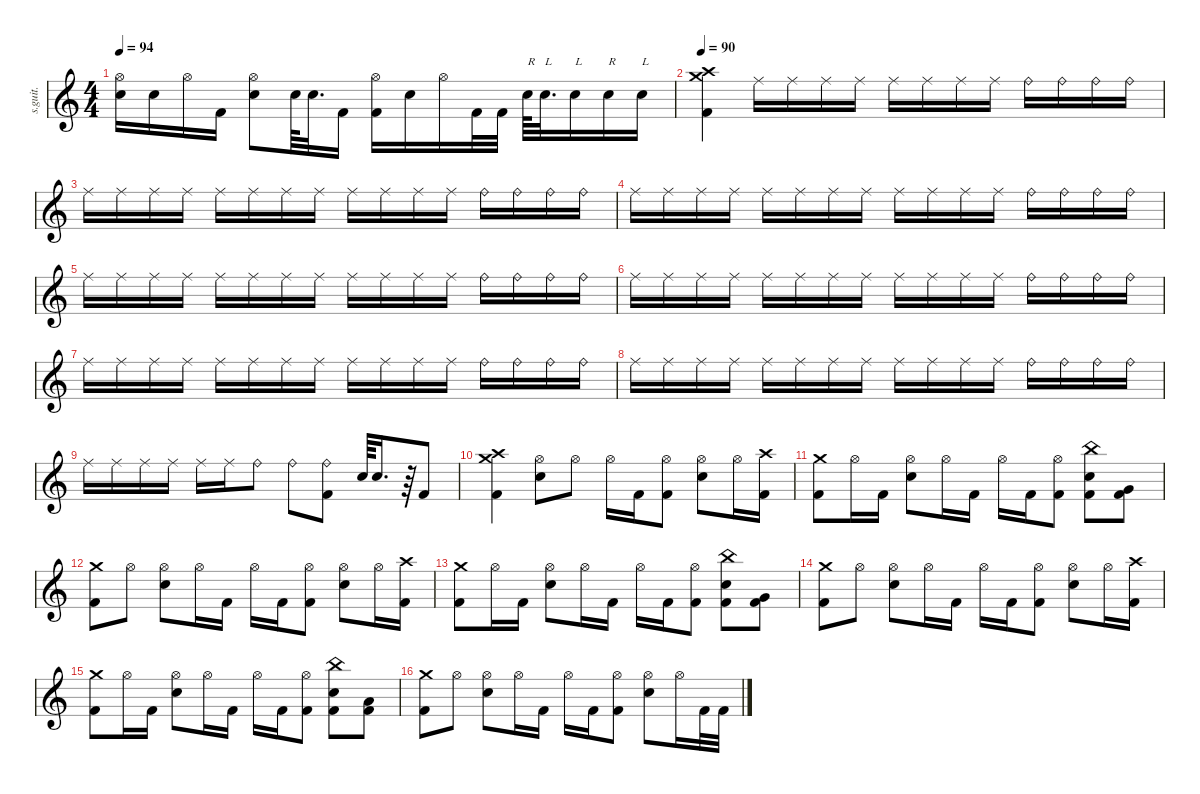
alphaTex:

\defaultSystemsLayout 4
\hideDynamics
\bracketExtendMode nobrackets
\track ("David Silveria" "s.guit.") {instrument percussion}
\staff {score}
\articulation defaults
\ts (4 4)
\tempo 94
\clef g2
\ks c
("Snare (hit) 2" "Hi-Hat (open)").16{dy f} "Snare (hit) 2".16 "Hi-Hat (open)".16 "Kick (hit) 2".16 ("Snare (hit) 2" "Hi-Hat (open)").8 "Snare (hit) 2".64 "Snare (hit) 2".32{d} "Kick (hit) 2".16 ("Kick (hit) 2" "Hi-Hat (open)").16 "Snare (hit) 2".16 "Hi-Hat (open)".16 "Kick (hit) 2".32 "Kick (hit) 2".32 "Snare (hit) 2".64{txt "R"} "Snare (hit) 2".32{d txt "L"} "Snare (hit) 2".16{txt "L"} "Snare (hit) 2".16{txt "R"} "Snare (hit) 2".16{txt "L"} |
\tempo 90
("Crash medium (hit)" "Kick (hit) 2" "Crash high (hit)").4{dy fff} "Ride (middle)".16{dy mf} "Ride (middle)".16 "Ride (middle)".16 "Ride (middle)".16 "Ride (middle)".16 "Ride (middle)".16 "Ride (middle)".16 "Ride (middle)".16 "Ride (bell)".16 "Ride (bell)".16 "Ride (bell)".16 "Ride (bell)".16 |
"Ride (middle)".16 "Ride (middle)".16 "Ride (middle)".16 "Ride (middle)".16 "Ride (middle)".16 "Ride (middle)".16 "Ride (middle)".16 "Ride (middle)".16 "Ride (middle)".16 "Ride (middle)".16 "Ride (middle)".16 "Ride (middle)".16 "Ride (bell)".16 "Ride (bell)".16 "Ride (bell)".16 "Ride (bell)".16 |
"Ride (middle)".16 "Ride (middle)".16 "Ride (middle)".16 "Ride (middle)".16 "Ride (middle)".16 "Ride (middle)".16 "Ride (middle)".16 "Ride (middle)".16 "Ride (middle)".16 "Ride (middle)".16 "Ride (middle)".16 "Ride (middle)".16 "Ride (bell)".16 "Ride (bell)".16 "Ride (bell)".16 "Ride (bell)".16 |
"Ride (middle)".16 "Ride (middle)".16 "Ride (middle)".16 "Ride (middle)".16 "Ride (middle)".16 "Ride (middle)".16 "Ride (middle)".16 "Ride (middle)".16 "Ride (middle)".16 "Ride (middle)".16 "Ride (middle)".16 "Ride (middle)".16 "Ride (bell)".16 "Ride (bell)".16 "Ride (bell)".16 "Ride (bell)".16 |
"Ride (middle)".16 "Ride (middle)".16 "Ride (middle)".16 "Ride (middle)".16 "Ride (middle)".16 "Ride (middle)".16 "Ride (middle)".16 "Ride (middle)".16 "Ride (middle)".16 "Ride (middle)".16 "Ride (middle)".16 "Ride (middle)".16 "Ride (bell)".16 "Ride (bell)".16 "Ride (bell)".16 "Ride (bell)".16 |
"Ride (middle)".16 "Ride (middle)".16 "Ride (middle)".16 "Ride (middle)".16 "Ride (middle)".16 "Ride (middle)".16 "Ride (middle)".16 "Ride (middle)".16 "Ride (middle)".16 "Ride (middle)".16 "Ride (middle)".16 "Ride (middle)".16 "Ride (bell)".16 "Ride (bell)".16 "Ride (bell)".16 "Ride (bell)".16 |
"Ride (middle)".16 "Ride (middle)".16 "Ride (middle)".16 "Ride (middle)".16 "Ride (middle)".16 "Ride (middle)".16 "Ride (middle)".16 "Ride (middle)".16 "Ride (middle)".16 "Ride (middle)".16 "Ride (middle)".16 "Ride (middle)".16 "Ride (bell)".16 "Ride (bell)".16 "Ride (bell)".16 "Ride (bell)".16 |
"Ride (middle)".16 "Ride (middle)".16 "Ride (middle)".16 "Ride (middle)".16 "Ride (middle)".16 "Ride (middle)".16 "Ride (bell)".8{dy f} "Ride (bell)".8 ("Ride (bell)" "Kick (hit) 2").8 "Snare (hit) 2".64 "Snare (hit) 2".16{d} r.64 "Kick (hit) 2".8 |
("Kick (hit) 2" "Crash high (hit)" "Crash medium (hit)").4{dy fff} ("Snare (hit) 2" "Hi-Hat (open)").8{dy f} "Hi-Hat (open)".8 "Hi-Hat (open)".16 "Kick (hit) 2".16 ("Kick (hit) 2" "Hi-Hat (open)").8 ("Snare (hit) 2" "Hi-Hat (open)").8 "Hi-Hat (open)".16 ("Crash high (hit)" "Kick (hit) 2").16 |
("Crash medium (hit)" "Kick (hit) 2").8 "Hi-Hat (open)".16 "Kick (hit) 2".16 ("Snare (hit) 2" "Hi-Hat (open)").8 "Hi-Hat (open)".16 "Kick (hit) 2".16 "Hi-Hat (open)".16 "Kick (hit) 2".16 ("Kick (hit) 2" "Hi-Hat (open)").8 ("Kick (hit) 2" "Snare (hit) 2" "China (hit)").8 ("Kick (hit) 2" "Very Low Tom (hit)").8 |
("Kick (hit) 2" "Crash medium (hit)").8 "Hi-Hat (open)".8 ("Snare (hit) 2" "Hi-Hat (open)").8 "Hi-Hat (open)".16 "Kick (hit) 2".16 "Hi-Hat (open)".16 "Kick (hit) 2".16 ("Kick (hit) 2" "Hi-Hat (open)").8 ("Snare (hit) 2" "Hi-Hat (open)").8 "Hi-Hat (open)".16 ("Crash high (hit)" "Kick (hit) 2").16 |
("Crash medium (hit)" "Kick (hit) 2").8 "Hi-Hat (open)".16 "Kick (hit) 2".16 ("Snare (hit) 2" "Hi-Hat (open)").8 "Hi-Hat (open)".16 "Kick (hit) 2".16 "Hi-Hat (open)".16 "Kick (hit) 2".16 ("Kick (hit) 2" "Hi-Hat (open)").8 ("Kick (hit) 2" "Snare (hit) 2" "China (hit)").8 ("Kick (hit) 2" "Very Low Tom (hit)").8 |
("Kick (hit) 2" "Crash medium (hit)").8 "Hi-Hat (open)".8 ("Snare (hit) 2" "Hi-Hat (open)").8 "Hi-Hat (open)".16 "Kick (hit) 2".16 "Hi-Hat (open)".16 "Kick (hit) 2".16 ("Kick (hit) 2" "Hi-Hat (open)").8 ("Snare (hit) 2" "Hi-Hat (open)").8 "Hi-Hat (open)".16 ("Crash high (hit)" "Kick (hit) 2").16 |
("Crash medium (hit)" "Kick (hit) 2").8 "Hi-Hat (open)".16 "Kick (hit) 2".16 ("Snare (hit) 2" "Hi-Hat (open)").8 "Hi-Hat (open)".16 "Kick (hit) 2".16 "Hi-Hat (open)".16 "Kick (hit) 2".16 ("Kick (hit) 2" "Hi-Hat (open)").8 ("Kick (hit) 2" "Snare (hit) 2" "China (hit)").8 ("Kick (hit) 2" "Low Tom (hit)").8 |
("Kick (hit) 2" "Crash medium (hit)").8 "Hi-Hat (open)".8 ("Snare (hit) 2" "Hi-Hat (open)").8 "Hi-Hat (open)".16 "Kick (hit) 2".16 "Hi-Hat (open)".16 "Kick (hit) 2".16 ("Kick (hit) 2" "Hi-Hat (open)").8 ("Snare (hit) 2" "Hi-Hat (open)").8 "Hi-Hat (open)".16 "Kick (hit) 2".32 "Kick (hit) 2".32
